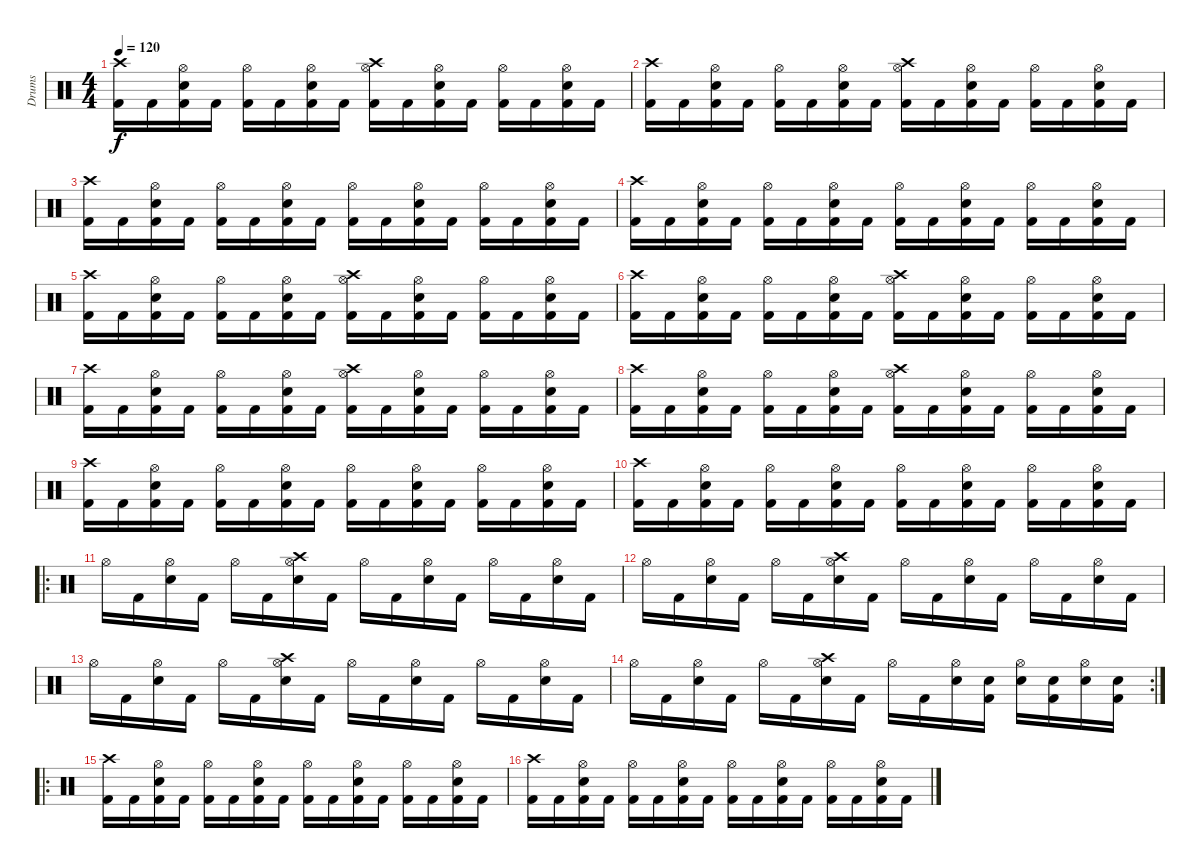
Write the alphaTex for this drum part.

\track ("Drums" "Drums") {instrument percussion}
\staff {score}
\articulation defaults
\ts (4 4)
\tempo 120
\clef neutral
\ks c
("Kick (hit) 2" "Crash high (hit)").16{dy f} "Kick (hit) 2".16 ("Kick (hit) 2" "Snare (hit) 2" "Hi-Hat (open)").16 "Kick (hit) 2".16 ("Kick (hit) 2" "Hi-Hat (open)").16 "Kick (hit) 2".16 ("Kick (hit) 2" "Snare (hit) 2" "Hi-Hat (open)").16 "Kick (hit) 2".16 ("Kick (hit) 2" "Hi-Hat (open)" "Crash high (hit)").16 "Kick (hit) 2".16 ("Kick (hit) 2" "Snare (hit) 2" "Hi-Hat (open)").16 "Kick (hit) 2".16 ("Kick (hit) 2" "Hi-Hat (open)").16 "Kick (hit) 2".16 ("Kick (hit) 2" "Snare (hit) 2" "Hi-Hat (open)").16 "Kick (hit) 2".16 |
("Kick (hit) 2" "Crash high (hit)").16 "Kick (hit) 2".16 ("Kick (hit) 2" "Snare (hit) 2" "Hi-Hat (open)").16 "Kick (hit) 2".16 ("Kick (hit) 2" "Hi-Hat (open)").16 "Kick (hit) 2".16 ("Kick (hit) 2" "Snare (hit) 2" "Hi-Hat (open)").16 "Kick (hit) 2".16 ("Kick (hit) 2" "Hi-Hat (open)" "Crash high (hit)").16 "Kick (hit) 2".16 ("Kick (hit) 2" "Snare (hit) 2" "Hi-Hat (open)").16 "Kick (hit) 2".16 ("Kick (hit) 2" "Hi-Hat (open)").16 "Kick (hit) 2".16 ("Kick (hit) 2" "Snare (hit) 2" "Hi-Hat (open)").16 "Kick (hit) 2".16 |
("Kick (hit) 2" "Crash high (hit)").16 "Kick (hit) 2".16 ("Kick (hit) 2" "Snare (hit) 2" "Hi-Hat (open)").16 "Kick (hit) 2".16 ("Kick (hit) 2" "Hi-Hat (open)").16 "Kick (hit) 2".16 ("Kick (hit) 2" "Snare (hit) 2" "Hi-Hat (open)").16 "Kick (hit) 2".16 ("Kick (hit) 2" "Hi-Hat (open)").16 "Kick (hit) 2".16 ("Kick (hit) 2" "Snare (hit) 2" "Hi-Hat (open)").16 "Kick (hit) 2".16 ("Kick (hit) 2" "Hi-Hat (open)").16 "Kick (hit) 2".16 ("Kick (hit) 2" "Snare (hit) 2" "Hi-Hat (open)").16 "Kick (hit) 2".16 |
("Kick (hit) 2" "Crash high (hit)").16 "Kick (hit) 2".16 ("Kick (hit) 2" "Snare (hit) 2" "Hi-Hat (open)").16 "Kick (hit) 2".16 ("Kick (hit) 2" "Hi-Hat (open)").16 "Kick (hit) 2".16 ("Kick (hit) 2" "Snare (hit) 2" "Hi-Hat (open)").16 "Kick (hit) 2".16 ("Kick (hit) 2" "Hi-Hat (open)").16 "Kick (hit) 2".16 ("Kick (hit) 2" "Snare (hit) 2" "Hi-Hat (open)").16 "Kick (hit) 2".16 ("Kick (hit) 2" "Hi-Hat (open)").16 "Kick (hit) 2".16 ("Kick (hit) 2" "Snare (hit) 2" "Hi-Hat (open)").16 "Kick (hit) 2".16 |
("Kick (hit) 2" "Crash high (hit)").16 "Kick (hit) 2".16 ("Kick (hit) 2" "Snare (hit) 2" "Hi-Hat (open)").16 "Kick (hit) 2".16 ("Kick (hit) 2" "Hi-Hat (open)").16 "Kick (hit) 2".16 ("Kick (hit) 2" "Snare (hit) 2" "Hi-Hat (open)").16 "Kick (hit) 2".16 ("Kick (hit) 2" "Hi-Hat (open)" "Crash high (hit)").16 "Kick (hit) 2".16 ("Kick (hit) 2" "Snare (hit) 2" "Hi-Hat (open)").16 "Kick (hit) 2".16 ("Kick (hit) 2" "Hi-Hat (open)").16 "Kick (hit) 2".16 ("Kick (hit) 2" "Snare (hit) 2" "Hi-Hat (open)").16 "Kick (hit) 2".16 |
("Kick (hit) 2" "Crash high (hit)").16 "Kick (hit) 2".16 ("Kick (hit) 2" "Snare (hit) 2" "Hi-Hat (open)").16 "Kick (hit) 2".16 ("Kick (hit) 2" "Hi-Hat (open)").16 "Kick (hit) 2".16 ("Kick (hit) 2" "Snare (hit) 2" "Hi-Hat (open)").16 "Kick (hit) 2".16 ("Kick (hit) 2" "Hi-Hat (open)" "Crash high (hit)").16 "Kick (hit) 2".16 ("Kick (hit) 2" "Snare (hit) 2" "Hi-Hat (open)").16 "Kick (hit) 2".16 ("Kick (hit) 2" "Hi-Hat (open)").16 "Kick (hit) 2".16 ("Kick (hit) 2" "Snare (hit) 2" "Hi-Hat (open)").16 "Kick (hit) 2".16 |
("Kick (hit) 2" "Crash high (hit)").16 "Kick (hit) 2".16 ("Kick (hit) 2" "Snare (hit) 2" "Hi-Hat (open)").16 "Kick (hit) 2".16 ("Kick (hit) 2" "Hi-Hat (open)").16 "Kick (hit) 2".16 ("Kick (hit) 2" "Snare (hit) 2" "Hi-Hat (open)").16 "Kick (hit) 2".16 ("Kick (hit) 2" "Hi-Hat (open)" "Crash high (hit)").16 "Kick (hit) 2".16 ("Kick (hit) 2" "Snare (hit) 2" "Hi-Hat (open)").16 "Kick (hit) 2".16 ("Kick (hit) 2" "Hi-Hat (open)").16 "Kick (hit) 2".16 ("Kick (hit) 2" "Snare (hit) 2" "Hi-Hat (open)").16 "Kick (hit) 2".16 |
("Kick (hit) 2" "Crash high (hit)").16 "Kick (hit) 2".16 ("Kick (hit) 2" "Snare (hit) 2" "Hi-Hat (open)").16 "Kick (hit) 2".16 ("Kick (hit) 2" "Hi-Hat (open)").16 "Kick (hit) 2".16 ("Kick (hit) 2" "Snare (hit) 2" "Hi-Hat (open)").16 "Kick (hit) 2".16 ("Kick (hit) 2" "Hi-Hat (open)" "Crash high (hit)").16 "Kick (hit) 2".16 ("Kick (hit) 2" "Snare (hit) 2" "Hi-Hat (open)").16 "Kick (hit) 2".16 ("Kick (hit) 2" "Hi-Hat (open)").16 "Kick (hit) 2".16 ("Kick (hit) 2" "Snare (hit) 2" "Hi-Hat (open)").16 "Kick (hit) 2".16 |
("Kick (hit) 2" "Crash high (hit)").16 "Kick (hit) 2".16 ("Kick (hit) 2" "Snare (hit) 2" "Hi-Hat (open)").16 "Kick (hit) 2".16 ("Kick (hit) 2" "Hi-Hat (open)").16 "Kick (hit) 2".16 ("Kick (hit) 2" "Snare (hit) 2" "Hi-Hat (open)").16 "Kick (hit) 2".16 ("Kick (hit) 2" "Hi-Hat (open)").16 "Kick (hit) 2".16 ("Kick (hit) 2" "Snare (hit) 2" "Hi-Hat (open)").16 "Kick (hit) 2".16 ("Kick (hit) 2" "Hi-Hat (open)").16 "Kick (hit) 2".16 ("Kick (hit) 2" "Snare (hit) 2" "Hi-Hat (open)").16 "Kick (hit) 2".16 |
("Kick (hit) 2" "Crash high (hit)").16 "Kick (hit) 2".16 ("Kick (hit) 2" "Snare (hit) 2" "Hi-Hat (open)").16 "Kick (hit) 2".16 ("Kick (hit) 2" "Hi-Hat (open)").16 "Kick (hit) 2".16 ("Kick (hit) 2" "Snare (hit) 2" "Hi-Hat (open)").16 "Kick (hit) 2".16 ("Kick (hit) 2" "Hi-Hat (open)").16 "Kick (hit) 2".16 ("Kick (hit) 2" "Snare (hit) 2" "Hi-Hat (open)").16 "Kick (hit) 2".16 ("Kick (hit) 2" "Hi-Hat (open)").16 "Kick (hit) 2".16 ("Kick (hit) 2" "Snare (hit) 2" "Hi-Hat (open)").16 "Kick (hit) 2".16 |
\ro "Hi-Hat (open)".16 "Kick (hit) 2".16
("Snare (hit) 2" "Hi-Hat (open)").16 "Kick (hit) 2".16 "Hi-Hat (open)".16 "Kick (hit) 2".16 ("Snare (hit) 2" "Hi-Hat (open)" "Crash high (hit)").16 "Kick (hit) 2".16 "Hi-Hat (open)".16 "Kick (hit) 2".16 ("Snare (hit) 2" "Hi-Hat (open)").16 "Kick (hit) 2".16 "Hi-Hat (open)".16 "Kick (hit) 2".16 ("Snare (hit) 2" "Hi-Hat (open)").16 "Kick (hit) 2".16 |
"Hi-Hat (open)".16 "Kick (hit) 2".16 ("Snare (hit) 2" "Hi-Hat (open)").16 "Kick (hit) 2".16 "Hi-Hat (open)".16 "Kick (hit) 2".16 ("Snare (hit) 2" "Hi-Hat (open)" "Crash high (hit)").16 "Kick (hit) 2".16 "Hi-Hat (open)".16 "Kick (hit) 2".16 ("Snare (hit) 2" "Hi-Hat (open)").16 "Kick (hit) 2".16 "Hi-Hat (open)".16 "Kick (hit) 2".16 ("Snare (hit) 2" "Hi-Hat (open)").16 "Kick (hit) 2".16 |
"Hi-Hat (open)".16 "Kick (hit) 2".16 ("Snare (hit) 2" "Hi-Hat (open)").16 "Kick (hit) 2".16 "Hi-Hat (open)".16 "Kick (hit) 2".16 ("Snare (hit) 2" "Hi-Hat (open)" "Crash high (hit)").16 "Kick (hit) 2".16 "Hi-Hat (open)".16 "Kick (hit) 2".16 ("Snare (hit) 2" "Hi-Hat (open)").16 "Kick (hit) 2".16 "Hi-Hat (open)".16 "Kick (hit) 2".16 ("Snare (hit) 2" "Hi-Hat (open)").16 "Kick (hit) 2".16 |
\rc 2 "Hi-Hat (open)".16 "Kick (hit) 2".16
("Snare (hit) 2" "Hi-Hat (open)").16 "Kick (hit) 2".16 "Hi-Hat (open)".16 "Kick (hit) 2".16 ("Snare (hit) 2" "Hi-Hat (open)" "Crash high (hit)").16 "Kick (hit) 2".16 "Hi-Hat (open)".16 "Kick (hit) 2".16 ("Snare (hit) 2" "Hi-Hat (open)").16 ("Kick (hit) 2" "Snare (hit) 2").16 ("Hi-Hat (open)" "Snare (hit) 2").16 ("Kick (hit) 2" "Snare (hit) 2").16 ("Snare (hit) 2" "Hi-Hat (open)").16 ("Kick (hit) 2" "Snare (hit) 2").16 |
\ro
("Kick (hit) 2" "Crash high (hit)").16 "Kick (hit) 2".16 ("Kick (hit) 2" "Snare (hit) 2" "Hi-Hat (open)").16 "Kick (hit) 2".16 ("Kick (hit) 2" "Hi-Hat (open)").16 "Kick (hit) 2".16 ("Kick (hit) 2" "Snare (hit) 2" "Hi-Hat (open)").16 "Kick (hit) 2".16 ("Kick (hit) 2" "Hi-Hat (open)").16 "Kick (hit) 2".16 ("Kick (hit) 2" "Snare (hit) 2" "Hi-Hat (open)").16 "Kick (hit) 2".16 ("Kick (hit) 2" "Hi-Hat (open)").16 "Kick (hit) 2".16 ("Kick (hit) 2" "Snare (hit) 2" "Hi-Hat (open)").16 "Kick (hit) 2".16 |
("Kick (hit) 2" "Crash high (hit)").16 "Kick (hit) 2".16 ("Kick (hit) 2" "Snare (hit) 2" "Hi-Hat (open)").16 "Kick (hit) 2".16 ("Kick (hit) 2" "Hi-Hat (open)").16 "Kick (hit) 2".16 ("Kick (hit) 2" "Snare (hit) 2" "Hi-Hat (open)").16 "Kick (hit) 2".16 ("Kick (hit) 2" "Hi-Hat (open)").16 "Kick (hit) 2".16 ("Kick (hit) 2" "Snare (hit) 2" "Hi-Hat (open)").16 "Kick (hit) 2".16 ("Kick (hit) 2" "Hi-Hat (open)").16 "Kick (hit) 2".16 ("Kick (hit) 2" "Snare (hit) 2" "Hi-Hat (open)").16 "Kick (hit) 2".16
